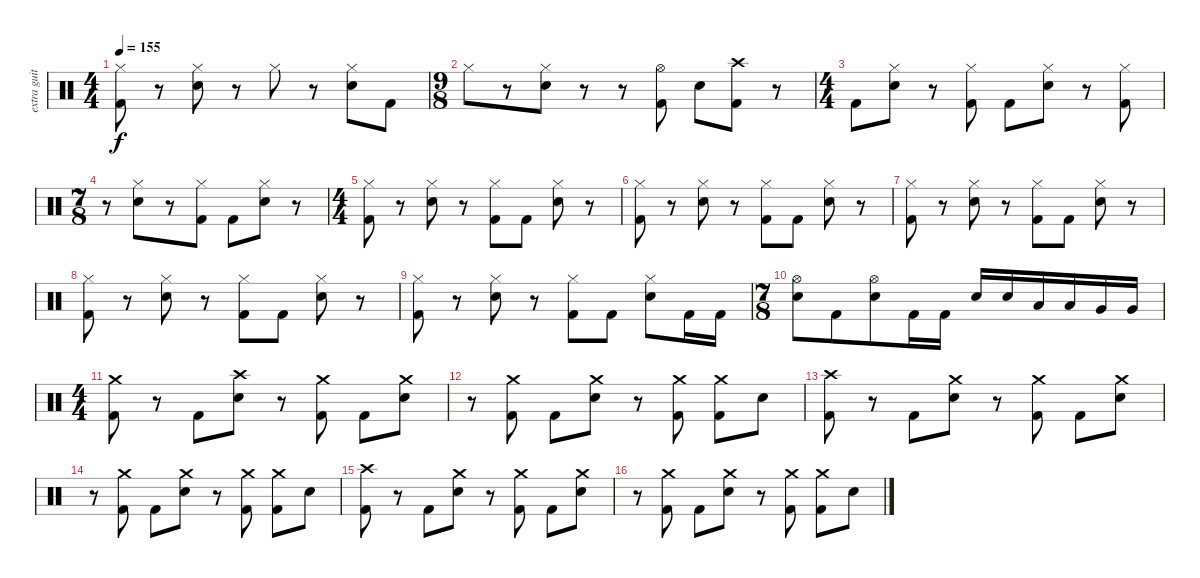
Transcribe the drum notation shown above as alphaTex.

\track ("extra guitar" "extra guit") {instrument percussion}
\staff {score}
\articulation defaults
\ts (4 4)
\tempo 155
\clef neutral
\ks c
("Hi-Hat (closed)" "Kick (hit) 2").8{dy f} r.8 ("Hi-Hat (closed)" "Electric Snare (hit)").8 r.8 "Hi-Hat (closed)".8 r.8 ("Hi-Hat (closed)" "Electric Snare (hit)").8 "Kick (hit) 2".8 |
\ts (9 8)
"Hi-Hat (closed)".8 r.8 ("Hi-Hat (closed)" "Electric Snare (hit)").8 r.8 r.8 ("Hi-Hat (open)" "Kick (hit) 2").8 "Electric Snare (hit)".8 ("Crash high (hit)" "Kick (hit) 2").8 r.8 |
\ts (4 4)
"Kick (hit) 2".8 ("Hi-Hat (closed)" "Electric Snare (hit)").8 r.8 ("Hi-Hat (closed)" "Kick (hit) 2").8 "Kick (hit) 2".8 ("Hi-Hat (closed)" "Electric Snare (hit)").8 r.8 ("Hi-Hat (closed)" "Kick (hit) 2").8 |
\ts (7 8)
r.8 ("Hi-Hat (closed)" "Electric Snare (hit)").8 r.8 ("Hi-Hat (closed)" "Kick (hit) 2").8 "Kick (hit) 2".8 ("Hi-Hat (closed)" "Electric Snare (hit)").8 r.8 |
\ts (4 4)
("Hi-Hat (closed)" "Kick (hit) 2").8 r.8 ("Hi-Hat (closed)" "Electric Snare (hit)").8 r.8 ("Hi-Hat (closed)" "Kick (hit) 2").8 "Kick (hit) 2".8 ("Hi-Hat (closed)" "Electric Snare (hit)").8 r.8 |
("Hi-Hat (closed)" "Kick (hit) 2").8 r.8 ("Hi-Hat (closed)" "Electric Snare (hit)").8 r.8 ("Hi-Hat (closed)" "Kick (hit) 2").8 "Kick (hit) 2".8 ("Hi-Hat (closed)" "Electric Snare (hit)").8 r.8 |
("Hi-Hat (closed)" "Kick (hit) 2").8 r.8 ("Hi-Hat (closed)" "Electric Snare (hit)").8 r.8 ("Hi-Hat (closed)" "Kick (hit) 2").8 "Kick (hit) 2".8 ("Hi-Hat (closed)" "Electric Snare (hit)").8 r.8 |
("Hi-Hat (closed)" "Kick (hit) 2").8 r.8 ("Hi-Hat (closed)" "Electric Snare (hit)").8 r.8 ("Hi-Hat (closed)" "Kick (hit) 2").8 "Kick (hit) 2".8 ("Hi-Hat (closed)" "Electric Snare (hit)").8 r.8 |
("Hi-Hat (closed)" "Kick (hit) 2").8 r.8 ("Hi-Hat (closed)" "Electric Snare (hit)").8 r.8 ("Hi-Hat (closed)" "Kick (hit) 2").8 "Kick (hit) 2".8 ("Hi-Hat (closed)" "Electric Snare (hit)").8 "Kick (hit) 2".16 "Kick (hit) 2".16 |
\ts (7 8)
("Hi-Hat (open)" "Electric Snare (hit)").8 "Kick (hit) 2".8 ("Hi-Hat (open)" "Electric Snare (hit)").8 "Kick (hit) 2".16 "Kick (hit) 2".16 "Electric Snare (hit)".16 "Electric Snare (hit)".16 "Low Tom (hit)".16 "Low Tom (hit)".16 "Very Low Tom (hit)".16 "Very Low Tom (hit)".16 |
\ts (4 4)
("Crash medium (hit)" "Kick (hit) 2").8 r.8 "Kick (hit) 2".8 ("Crash high (hit)" "Electric Snare (hit)").8 r.8 ("Crash medium (hit)" "Kick (hit) 2").8 "Kick (hit) 2".8 ("Crash medium (hit)" "Electric Snare (hit)").8 |
r.8 ("Crash medium (hit)" "Kick (hit) 2").8 "Kick (hit) 2".8 ("Crash medium (hit)" "Electric Snare (hit)").8 r.8 ("Crash medium (hit)" "Kick (hit) 2").8 ("Crash medium (hit)" "Kick (hit) 2").8 "Electric Snare (hit)".8 |
("Crash high (hit)" "Kick (hit) 2").8 r.8 "Kick (hit) 2".8 ("Crash medium (hit)" "Electric Snare (hit)").8 r.8 ("Crash medium (hit)" "Kick (hit) 2").8 "Kick (hit) 2".8 ("Crash medium (hit)" "Electric Snare (hit)").8 |
r.8 ("Crash medium (hit)" "Kick (hit) 2").8 "Kick (hit) 2".8 ("Crash medium (hit)" "Electric Snare (hit)").8 r.8 ("Crash medium (hit)" "Kick (hit) 2").8 ("Crash medium (hit)" "Kick (hit) 2").8 "Electric Snare (hit)".8 |
("Crash high (hit)" "Kick (hit) 2").8 r.8 "Kick (hit) 2".8 ("Crash medium (hit)" "Electric Snare (hit)").8 r.8 ("Crash medium (hit)" "Kick (hit) 2").8 "Kick (hit) 2".8 ("Crash medium (hit)" "Electric Snare (hit)").8 |
r.8 ("Crash medium (hit)" "Kick (hit) 2").8 "Kick (hit) 2".8 ("Crash medium (hit)" "Electric Snare (hit)").8 r.8 ("Crash medium (hit)" "Kick (hit) 2").8 ("Crash medium (hit)" "Kick (hit) 2").8 "Electric Snare (hit)".8
